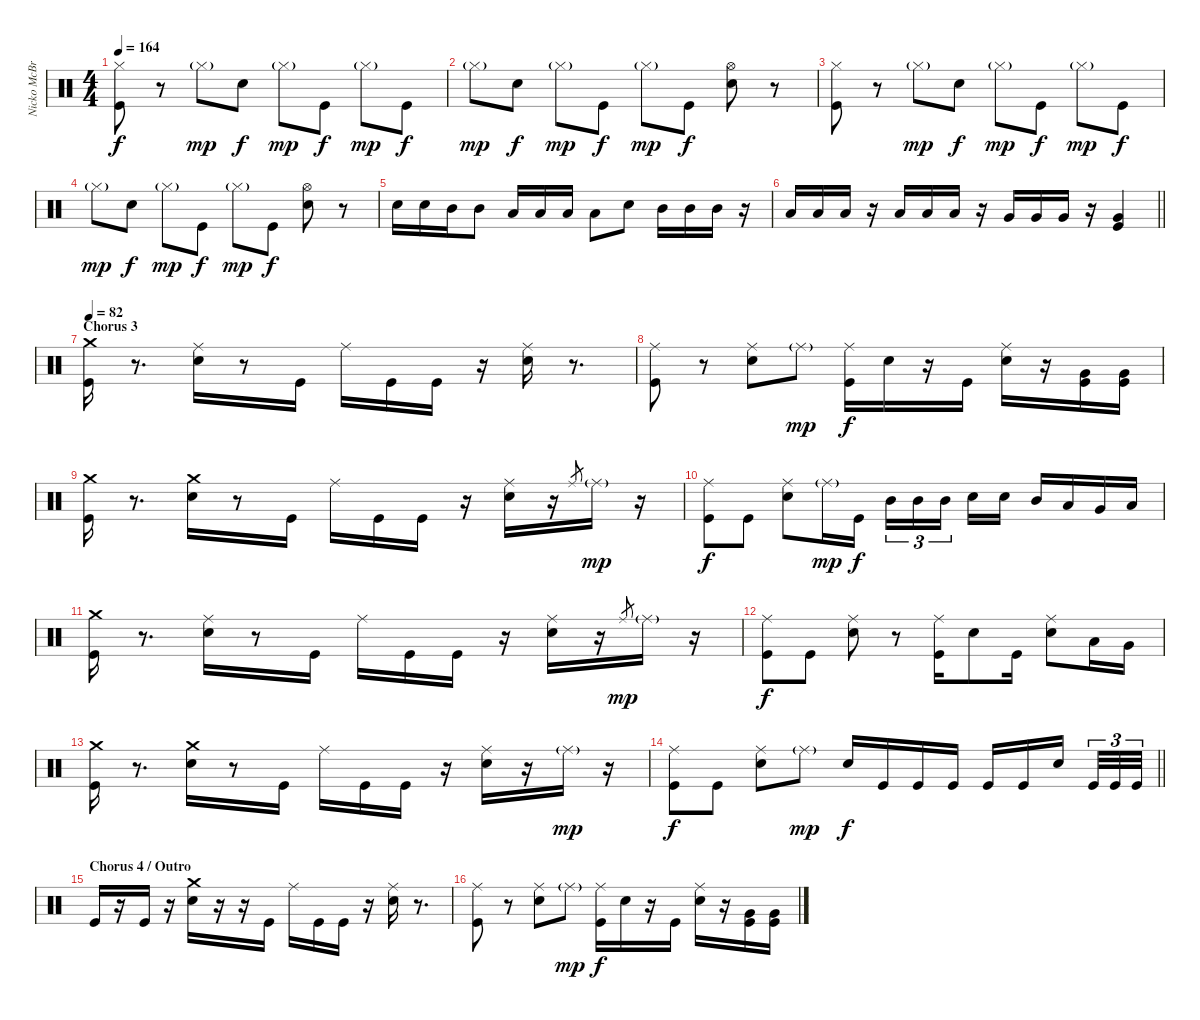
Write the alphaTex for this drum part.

\track ("Nicko McBrain" "Nicko McBr") {instrument percussion}
\staff {score}
\articulation defaults
\ts (4 4)
\tempo 164
\clef neutral
\ks c
("Hi-Hat (closed)" "Kick (hit)").8{dy f} r.8 "Hi-Hat (closed)"{g}.8{dy mp} "Electric Snare (hit)".8{dy f} "Hi-Hat (closed)"{g}.8{dy mp} "Kick (hit)".8{dy f} "Hi-Hat (closed)"{g}.8{dy mp} "Kick (hit)".8{dy f} |
"Hi-Hat (closed)"{g}.8{dy mp} "Electric Snare (hit)".8{dy f} "Hi-Hat (closed)"{g}.8{dy mp} "Kick (hit)".8{dy f} "Hi-Hat (closed)"{g}.8{dy mp} "Kick (hit)".8{dy f} ("Hi-Hat (open)" "Electric Snare (hit)").8 r.8 |
("Hi-Hat (closed)" "Kick (hit)").8 r.8 "Hi-Hat (closed)"{g}.8{dy mp} "Electric Snare (hit)".8{dy f} "Hi-Hat (closed)"{g}.8{dy mp} "Kick (hit)".8{dy f} "Hi-Hat (closed)"{g}.8{dy mp} "Kick (hit)".8{dy f} |
"Hi-Hat (closed)"{g}.8{dy mp} "Electric Snare (hit)".8{dy f} "Hi-Hat (closed)"{g}.8{dy mp} "Kick (hit)".8{dy f} "Hi-Hat (closed)"{g}.8{dy mp} "Kick (hit)".8{dy f} ("Hi-Hat (open)" "Electric Snare (hit)").8 r.8 |
"Electric Snare (hit)".16 "Electric Snare (hit)".16 "Mid Tom (hit)".16 "Mid Tom (hit)".8 "Low Tom (hit)".16 "Low Tom (hit)".16 "Low Tom (hit)".16 "Low Tom (hit)".8 "Electric Snare (hit)".8 "Mid Tom (hit)".16 "Mid Tom (hit)".16 "Mid Tom (hit)".16 r.16 |
\barLineRight lightlight "Low Tom (hit)".16 "Low Tom (hit)".16 "Low Tom (hit)".16
r.16 "Low Tom (hit)".16 "Low Tom (hit)".16 "Low Tom (hit)".16 r.16 "Very Low Tom (hit)".16 "Very Low Tom (hit)".16 "Very Low Tom (hit)".16 r.16 ("Very Low Tom (hit)" "Kick (hit)").4 |
\section ("" "Chorus 3")
\tempo 82
("Crash medium (hit)" "Kick (hit)").16 r.8{d} ("Ride (middle)" "Electric Snare (hit)").16 r.8 "Kick (hit)".16 "Ride (middle)".16 "Kick (hit)".16 "Kick (hit)".16 r.16 ("Ride (middle)" "Electric Snare (hit)").16 r.8{d} |
("Ride (middle)" "Kick (hit)").8 r.8 ("Ride (middle)" "Electric Snare (hit)").8 "Ride (middle)"{g}.8{dy mp} ("Ride (middle)" "Kick (hit)").16{dy f} "Electric Snare (hit)".16 r.16 "Kick (hit)".16 ("Ride (middle)" "Electric Snare (hit)").16 r.16 ("Very Low Tom (hit)" "Kick (hit)").16 ("Very Low Tom (hit)" "Kick (hit)").16 |
("Crash medium (hit)" "Kick (hit)").16 r.8{d} ("Crash medium (hit)" "Electric Snare (hit)").16 r.8 "Kick (hit)".16 "Ride (middle)".16 "Kick (hit)".16 "Kick (hit)".16 r.16 ("Ride (middle)" "Electric Snare (hit)").16 r.16 "Ride (middle)".8{gr} "Ride (middle)"{g}.16{dy mp} r.16 |
("Ride (middle)" "Kick (hit)").8{dy f} "Kick (hit)".8 ("Ride (middle)" "Electric Snare (hit)").8 "Ride (middle)"{g}.16{dy mp} "Kick (hit)".16{dy f} "Mid Tom (hit)".16{tu (3 2)} "Mid Tom (hit)".16{tu (3 2)} "Mid Tom (hit)".16{tu (3 2) beam splitsecondary} "Electric Snare (hit)".16 "Electric Snare (hit)".16 "Mid Tom (hit)".16 "Low Tom (hit)".16 "Very Low Tom (hit)".16 "Low Floor Tom (hit)".16 |
("Crash medium (hit)" "Kick (hit)").16 r.8{d} ("Ride (middle)" "Electric Snare (hit)").16 r.8 "Kick (hit)".16 "Ride (middle)".16 "Kick (hit)".16 "Kick (hit)".16 r.16 ("Ride (middle)" "Electric Snare (hit)").16 r.16 "Ride (middle)".8{gr dy mp} "Ride (middle)"{g}.16 r.16 |
("Ride (middle)" "Kick (hit)").8{dy f} "Kick (hit)".8 ("Ride (middle)" "Electric Snare (hit)").8 r.8 ("Ride (middle)" "Kick (hit)").16 "Electric Snare (hit)".8 "Kick (hit)".16 ("Ride (middle)" "Electric Snare (hit)").8 "Low Tom (hit)".16 "Very Low Tom (hit)".16 |
("Crash medium (hit)" "Kick (hit)").16 r.8{d} ("Crash medium (hit)" "Electric Snare (hit)").16 r.8 "Kick (hit)".16 "Ride (middle)".16 "Kick (hit)".16 "Kick (hit)".16 r.16 ("Ride (middle)" "Electric Snare (hit)").16 r.16 "Ride (middle)"{g}.16{dy mp} r.16 |
\barLineRight lightlight
("Ride (middle)" "Kick (hit)").8{dy f} "Kick (hit)".8 ("Ride (middle)" "Electric Snare (hit)").8 "Ride (middle)"{g}.8{dy mp} "Electric Snare (hit)".16{dy f} "Kick (hit)".16 "Kick (hit)".16 "Kick (hit)".16 "Kick (hit)".16 "Kick (hit)".16 "Electric Snare (hit)".16{beam splitsecondary} "Kick (hit)".32{tu (3 2)} "Kick (hit)".32{tu (3 2)} "Kick (hit)".32{tu (3 2)} |
\section ("" "Chorus 4 / Outro")
"Kick (hit)".16 r.16 "Kick (hit)".16 r.16 ("Crash medium (hit)" "Electric Snare (hit)").16 r.16 r.16 "Kick (hit)".16 "Ride (middle)".16 "Kick (hit)".16 "Kick (hit)".16 r.16 ("Ride (middle)" "Electric Snare (hit)").16 r.8{d} |
("Ride (middle)" "Kick (hit)").8 r.8 ("Ride (middle)" "Electric Snare (hit)").8 "Ride (middle)"{g}.8{dy mp} ("Ride (middle)" "Kick (hit)").16{dy f} "Electric Snare (hit)".16 r.16 "Kick (hit)".16 ("Ride (middle)" "Electric Snare (hit)").16 r.16 ("Very Low Tom (hit)" "Kick (hit)").16 ("Very Low Tom (hit)" "Kick (hit)").16
